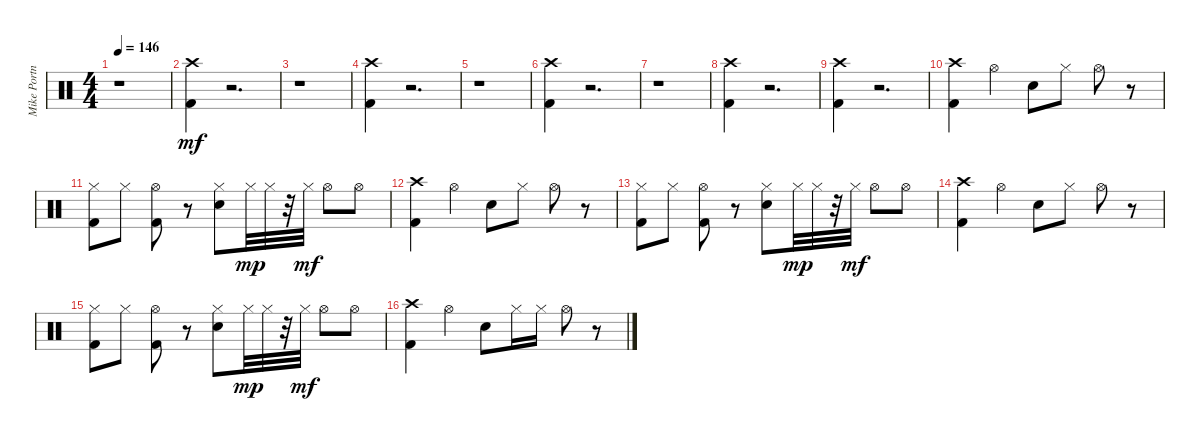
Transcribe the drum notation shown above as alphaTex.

\track ("Mike Portnoy: Drums" "Mike Portn") {instrument percussion}
\staff {score}
\articulation defaults
\ts (4 4)
\tempo 146
\clef neutral
\ks c
r.1{dy mf} |
("Kick (hit) 2" "Crash high (hit)").4 r.2{d} |
r.1 |
("Kick (hit) 2" "Crash high (hit)").4 r.2{d} |
r.1 |
("Kick (hit) 2" "Crash high (hit)").4 r.2{d} |
r.1 |
("Kick (hit) 2" "Crash high (hit)").4 r.2{d} |
("Kick (hit) 2" "Crash high (hit)").4 r.2{d} |
("Kick (hit) 2" "Crash high (hit)").4 "Hi-Hat (open)".4 "Electric Snare (hit)".8 "Hi-Hat (closed)".8 "Hi-Hat (open)".8 r.8 |
("Kick (hit) 2" "Hi-Hat (closed)").8 "Hi-Hat (closed)".8 ("Kick (hit) 2" "Hi-Hat (open)").8 r.8 ("Electric Snare (hit)" "Hi-Hat (closed)").8 "Hi-Hat (closed)".32{dy mp} "Hi-Hat (closed)".32 r.32 "Hi-Hat (closed)".32{dy mf} "Hi-Hat (open)".8 "Hi-Hat (open)".8 |
("Kick (hit) 2" "Crash high (hit)").4 "Hi-Hat (open)".4 "Electric Snare (hit)".8 "Hi-Hat (closed)".8 "Hi-Hat (open)".8 r.8 |
("Kick (hit) 2" "Hi-Hat (closed)").8 "Hi-Hat (closed)".8 ("Kick (hit) 2" "Hi-Hat (open)").8 r.8 ("Electric Snare (hit)" "Hi-Hat (closed)").8 "Hi-Hat (closed)".32{dy mp} "Hi-Hat (closed)".32 r.32 "Hi-Hat (closed)".32{dy mf} "Hi-Hat (open)".8 "Hi-Hat (open)".8 |
("Kick (hit) 2" "Crash high (hit)").4 "Hi-Hat (open)".4 "Electric Snare (hit)".8 "Hi-Hat (closed)".8 "Hi-Hat (open)".8 r.8 |
("Kick (hit) 2" "Hi-Hat (closed)").8 "Hi-Hat (closed)".8 ("Kick (hit) 2" "Hi-Hat (open)").8 r.8 ("Electric Snare (hit)" "Hi-Hat (closed)").8 "Hi-Hat (closed)".32{dy mp} "Hi-Hat (closed)".32 r.32 "Hi-Hat (closed)".32{dy mf} "Hi-Hat (open)".8 "Hi-Hat (open)".8 |
("Kick (hit) 2" "Crash high (hit)").4 "Hi-Hat (open)".4 "Electric Snare (hit)".8 "Hi-Hat (closed)".16 "Hi-Hat (closed)".16 "Hi-Hat (open)".8 r.8
